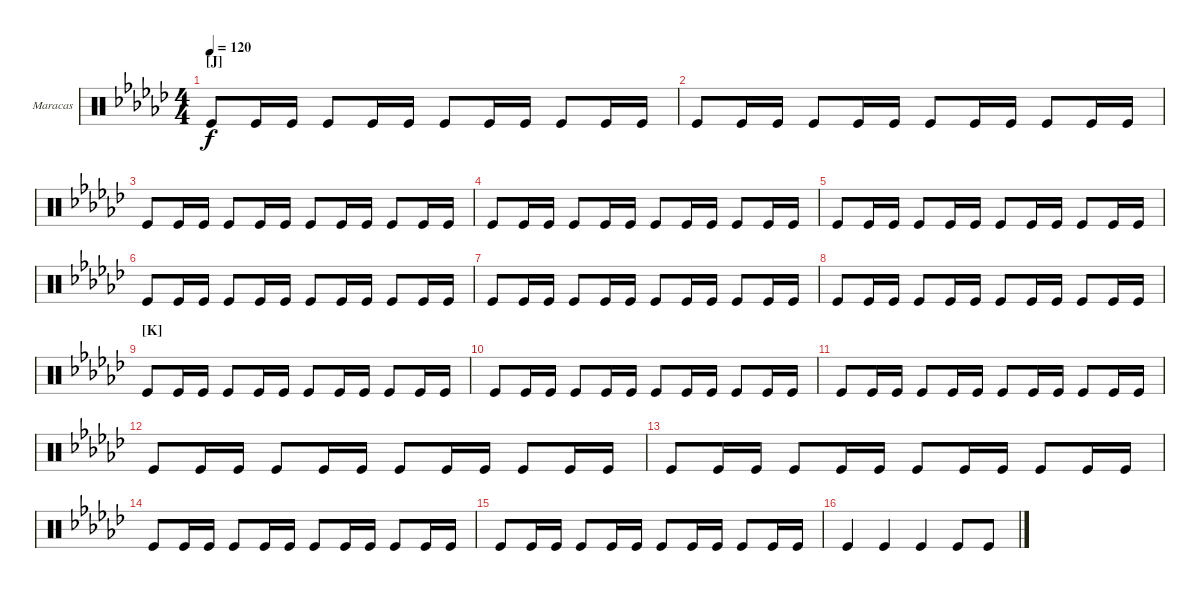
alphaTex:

\defaultSystemsLayout 4
\bracketExtendMode groupsimilarinstruments
\firstSystemTrackNameOrientation horizontal
\otherSystemsTrackNameOrientation horizontal
\track ("Maracas" "Maracas") {instrument percussion}
\staff {score}
\articulation defaults
\ts (4 4)
\section ("J" "")
\tempo 120
\clef neutral
\ks ebminor "Kick (hit)".8{dy f} "Kick (hit)".16 "Kick (hit)".16 "Kick (hit)".8 "Kick (hit)".16 "Kick (hit)".16 "Kick (hit)".8 "Kick (hit)".16 "Kick (hit)".16 "Kick (hit)".8 "Kick (hit)".16 "Kick (hit)".16
|
"Kick (hit)".8 "Kick (hit)".16 "Kick (hit)".16 "Kick (hit)".8 "Kick (hit)".16 "Kick (hit)".16 "Kick (hit)".8 "Kick (hit)".16 "Kick (hit)".16 "Kick (hit)".8 "Kick (hit)".16 "Kick (hit)".16 |
"Kick (hit)".8 "Kick (hit)".16 "Kick (hit)".16 "Kick (hit)".8 "Kick (hit)".16 "Kick (hit)".16 "Kick (hit)".8 "Kick (hit)".16 "Kick (hit)".16 "Kick (hit)".8 "Kick (hit)".16 "Kick (hit)".16 |
"Kick (hit)".8 "Kick (hit)".16 "Kick (hit)".16 "Kick (hit)".8 "Kick (hit)".16 "Kick (hit)".16 "Kick (hit)".8 "Kick (hit)".16 "Kick (hit)".16 "Kick (hit)".8 "Kick (hit)".16 "Kick (hit)".16 |
"Kick (hit)".8 "Kick (hit)".16 "Kick (hit)".16 "Kick (hit)".8 "Kick (hit)".16 "Kick (hit)".16 "Kick (hit)".8 "Kick (hit)".16 "Kick (hit)".16 "Kick (hit)".8 "Kick (hit)".16 "Kick (hit)".16 |
"Kick (hit)".8 "Kick (hit)".16 "Kick (hit)".16 "Kick (hit)".8 "Kick (hit)".16 "Kick (hit)".16 "Kick (hit)".8 "Kick (hit)".16 "Kick (hit)".16 "Kick (hit)".8 "Kick (hit)".16 "Kick (hit)".16 |
"Kick (hit)".8 "Kick (hit)".16 "Kick (hit)".16 "Kick (hit)".8 "Kick (hit)".16 "Kick (hit)".16 "Kick (hit)".8 "Kick (hit)".16 "Kick (hit)".16 "Kick (hit)".8 "Kick (hit)".16 "Kick (hit)".16 |
"Kick (hit)".8 "Kick (hit)".16 "Kick (hit)".16 "Kick (hit)".8 "Kick (hit)".16 "Kick (hit)".16 "Kick (hit)".8 "Kick (hit)".16 "Kick (hit)".16 "Kick (hit)".8 "Kick (hit)".16 "Kick (hit)".16 |
\section ("K" "")
"Kick (hit)".8 "Kick (hit)".16 "Kick (hit)".16 "Kick (hit)".8 "Kick (hit)".16 "Kick (hit)".16 "Kick (hit)".8 "Kick (hit)".16 "Kick (hit)".16 "Kick (hit)".8 "Kick (hit)".16 "Kick (hit)".16 |
"Kick (hit)".8 "Kick (hit)".16 "Kick (hit)".16 "Kick (hit)".8 "Kick (hit)".16 "Kick (hit)".16 "Kick (hit)".8 "Kick (hit)".16 "Kick (hit)".16 "Kick (hit)".8 "Kick (hit)".16 "Kick (hit)".16 |
"Kick (hit)".8 "Kick (hit)".16 "Kick (hit)".16 "Kick (hit)".8 "Kick (hit)".16 "Kick (hit)".16 "Kick (hit)".8 "Kick (hit)".16 "Kick (hit)".16 "Kick (hit)".8 "Kick (hit)".16 "Kick (hit)".16 |
"Kick (hit)".8 "Kick (hit)".16 "Kick (hit)".16 "Kick (hit)".8 "Kick (hit)".16 "Kick (hit)".16 "Kick (hit)".8 "Kick (hit)".16 "Kick (hit)".16 "Kick (hit)".8 "Kick (hit)".16 "Kick (hit)".16 |
"Kick (hit)".8 "Kick (hit)".16 "Kick (hit)".16 "Kick (hit)".8 "Kick (hit)".16 "Kick (hit)".16 "Kick (hit)".8 "Kick (hit)".16 "Kick (hit)".16 "Kick (hit)".8 "Kick (hit)".16 "Kick (hit)".16 |
"Kick (hit)".8 "Kick (hit)".16 "Kick (hit)".16 "Kick (hit)".8 "Kick (hit)".16 "Kick (hit)".16 "Kick (hit)".8 "Kick (hit)".16 "Kick (hit)".16 "Kick (hit)".8 "Kick (hit)".16 "Kick (hit)".16 |
"Kick (hit)".8 "Kick (hit)".16 "Kick (hit)".16 "Kick (hit)".8 "Kick (hit)".16 "Kick (hit)".16 "Kick (hit)".8 "Kick (hit)".16 "Kick (hit)".16 "Kick (hit)".8 "Kick (hit)".16 "Kick (hit)".16 |
"Kick (hit)".4 "Kick (hit)".4 "Kick (hit)".4 "Kick (hit)".8 "Kick (hit)".8
